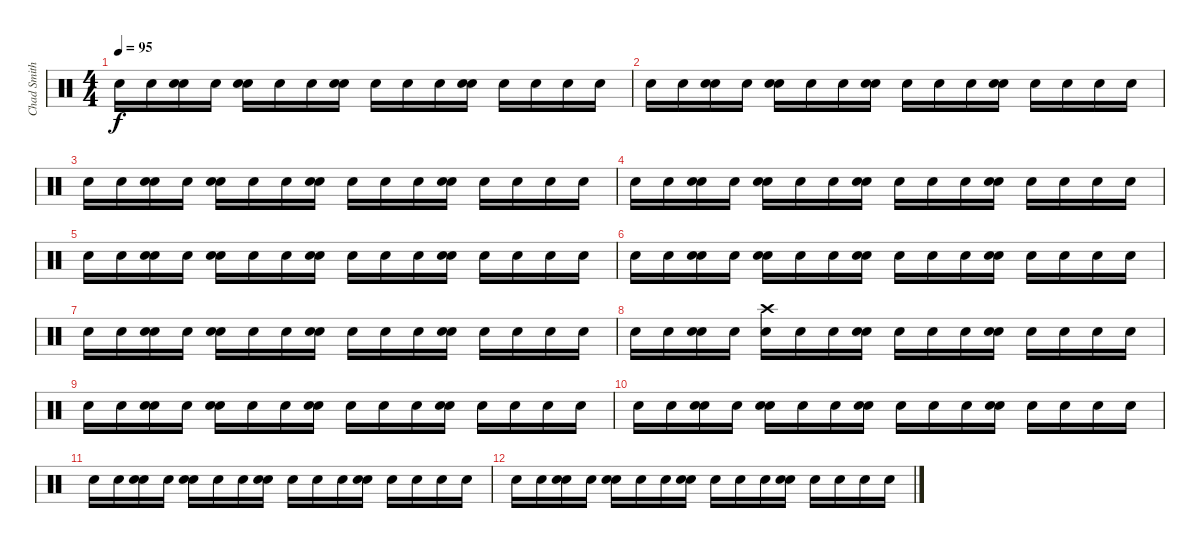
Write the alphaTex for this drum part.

\track ("Chad Smith/Drums" "Chad Smith") {instrument percussion}
\staff {score}
\articulation defaults
\ts (4 4)
\tempo 95
\clef neutral
\ks c "Electric Snare (hit)".16{dy f} "Electric Snare (hit)".16
("Snare (hit) 2" "Electric Snare (hit)").16 "Electric Snare (hit)".16 ("Snare (hit) 2" "Electric Snare (hit)").16 "Electric Snare (hit)".16 "Electric Snare (hit)".16 ("Snare (hit) 2" "Electric Snare (hit)").16 "Electric Snare (hit)".16 "Electric Snare (hit)".16 "Electric Snare (hit)".16 ("Snare (hit) 2" "Electric Snare (hit)").16 "Electric Snare (hit)".16 "Electric Snare (hit)".16 "Electric Snare (hit)".16 "Electric Snare (hit)".16 |
"Electric Snare (hit)".16 "Electric Snare (hit)".16 ("Snare (hit) 2" "Electric Snare (hit)").16 "Electric Snare (hit)".16 ("Snare (hit) 2" "Electric Snare (hit)").16 "Electric Snare (hit)".16 "Electric Snare (hit)".16 ("Snare (hit) 2" "Electric Snare (hit)").16 "Electric Snare (hit)".16 "Electric Snare (hit)".16 "Electric Snare (hit)".16 ("Snare (hit) 2" "Electric Snare (hit)").16 "Electric Snare (hit)".16 "Electric Snare (hit)".16 "Electric Snare (hit)".16 "Electric Snare (hit)".16 |
"Electric Snare (hit)".16 "Electric Snare (hit)".16 ("Snare (hit) 2" "Electric Snare (hit)").16 "Electric Snare (hit)".16 ("Snare (hit) 2" "Electric Snare (hit)").16 "Electric Snare (hit)".16 "Electric Snare (hit)".16 ("Snare (hit) 2" "Electric Snare (hit)").16 "Electric Snare (hit)".16 "Electric Snare (hit)".16 "Electric Snare (hit)".16 ("Snare (hit) 2" "Electric Snare (hit)").16 "Electric Snare (hit)".16 "Electric Snare (hit)".16 "Electric Snare (hit)".16 "Electric Snare (hit)".16 |
"Electric Snare (hit)".16 "Electric Snare (hit)".16 ("Snare (hit) 2" "Electric Snare (hit)").16 "Electric Snare (hit)".16 ("Snare (hit) 2" "Electric Snare (hit)").16 "Electric Snare (hit)".16 "Electric Snare (hit)".16 ("Snare (hit) 2" "Electric Snare (hit)").16 "Electric Snare (hit)".16 "Electric Snare (hit)".16 "Electric Snare (hit)".16 ("Snare (hit) 2" "Electric Snare (hit)").16 "Electric Snare (hit)".16 "Electric Snare (hit)".16 "Electric Snare (hit)".16 "Electric Snare (hit)".16 |
"Electric Snare (hit)".16 "Electric Snare (hit)".16 ("Snare (hit) 2" "Electric Snare (hit)").16 "Electric Snare (hit)".16 ("Snare (hit) 2" "Electric Snare (hit)").16 "Electric Snare (hit)".16 "Electric Snare (hit)".16 ("Snare (hit) 2" "Electric Snare (hit)").16 "Electric Snare (hit)".16 "Electric Snare (hit)".16 "Electric Snare (hit)".16 ("Snare (hit) 2" "Electric Snare (hit)").16 "Electric Snare (hit)".16 "Electric Snare (hit)".16 "Electric Snare (hit)".16 "Electric Snare (hit)".16 |
"Electric Snare (hit)".16 "Electric Snare (hit)".16 ("Snare (hit) 2" "Electric Snare (hit)").16 "Electric Snare (hit)".16 ("Snare (hit) 2" "Electric Snare (hit)").16 "Electric Snare (hit)".16 "Electric Snare (hit)".16 ("Snare (hit) 2" "Electric Snare (hit)").16 "Electric Snare (hit)".16 "Electric Snare (hit)".16 "Electric Snare (hit)".16 ("Snare (hit) 2" "Electric Snare (hit)").16 "Electric Snare (hit)".16 "Electric Snare (hit)".16 "Electric Snare (hit)".16 "Electric Snare (hit)".16 |
"Electric Snare (hit)".16 "Electric Snare (hit)".16 ("Snare (hit) 2" "Electric Snare (hit)").16 "Electric Snare (hit)".16 ("Snare (hit) 2" "Electric Snare (hit)").16 "Electric Snare (hit)".16 "Electric Snare (hit)".16 ("Snare (hit) 2" "Electric Snare (hit)").16 "Electric Snare (hit)".16 "Electric Snare (hit)".16 "Electric Snare (hit)".16 ("Snare (hit) 2" "Electric Snare (hit)").16 "Electric Snare (hit)".16 "Electric Snare (hit)".16 "Electric Snare (hit)".16 "Electric Snare (hit)".16 |
"Electric Snare (hit)".16 "Electric Snare (hit)".16 ("Snare (hit) 2" "Electric Snare (hit)").16 "Electric Snare (hit)".16 ("Crash high (hit)" "Electric Snare (hit)").16 "Electric Snare (hit)".16 "Electric Snare (hit)".16 ("Snare (hit) 2" "Electric Snare (hit)").16 "Electric Snare (hit)".16 "Electric Snare (hit)".16 "Electric Snare (hit)".16 ("Snare (hit) 2" "Electric Snare (hit)").16 "Electric Snare (hit)".16 "Electric Snare (hit)".16 "Electric Snare (hit)".16 "Electric Snare (hit)".16 |
"Electric Snare (hit)".16 "Electric Snare (hit)".16 ("Snare (hit) 2" "Electric Snare (hit)").16 "Electric Snare (hit)".16 ("Snare (hit) 2" "Electric Snare (hit)").16 "Electric Snare (hit)".16 "Electric Snare (hit)".16 ("Snare (hit) 2" "Electric Snare (hit)").16 "Electric Snare (hit)".16 "Electric Snare (hit)".16 "Electric Snare (hit)".16 ("Snare (hit) 2" "Electric Snare (hit)").16 "Electric Snare (hit)".16 "Electric Snare (hit)".16 "Electric Snare (hit)".16 "Electric Snare (hit)".16 |
"Electric Snare (hit)".16 "Electric Snare (hit)".16 ("Snare (hit) 2" "Electric Snare (hit)").16 "Electric Snare (hit)".16 ("Snare (hit) 2" "Electric Snare (hit)").16 "Electric Snare (hit)".16 "Electric Snare (hit)".16 ("Snare (hit) 2" "Electric Snare (hit)").16 "Electric Snare (hit)".16 "Electric Snare (hit)".16 "Electric Snare (hit)".16 ("Snare (hit) 2" "Electric Snare (hit)").16 "Electric Snare (hit)".16 "Electric Snare (hit)".16 "Electric Snare (hit)".16 "Electric Snare (hit)".16 |
"Electric Snare (hit)".16 "Electric Snare (hit)".16 ("Snare (hit) 2" "Electric Snare (hit)").16 "Electric Snare (hit)".16 ("Snare (hit) 2" "Electric Snare (hit)").16 "Electric Snare (hit)".16 "Electric Snare (hit)".16 ("Snare (hit) 2" "Electric Snare (hit)").16 "Electric Snare (hit)".16 "Electric Snare (hit)".16 "Electric Snare (hit)".16 ("Snare (hit) 2" "Electric Snare (hit)").16 "Electric Snare (hit)".16 "Electric Snare (hit)".16 "Electric Snare (hit)".16 "Electric Snare (hit)".16 |
"Electric Snare (hit)".16 "Electric Snare (hit)".16 ("Snare (hit) 2" "Electric Snare (hit)").16 "Electric Snare (hit)".16 ("Snare (hit) 2" "Electric Snare (hit)").16 "Electric Snare (hit)".16 "Electric Snare (hit)".16 ("Snare (hit) 2" "Electric Snare (hit)").16 "Electric Snare (hit)".16 "Electric Snare (hit)".16 "Electric Snare (hit)".16 ("Snare (hit) 2" "Electric Snare (hit)").16 "Electric Snare (hit)".16 "Electric Snare (hit)".16 "Electric Snare (hit)".16 "Electric Snare (hit)".16
